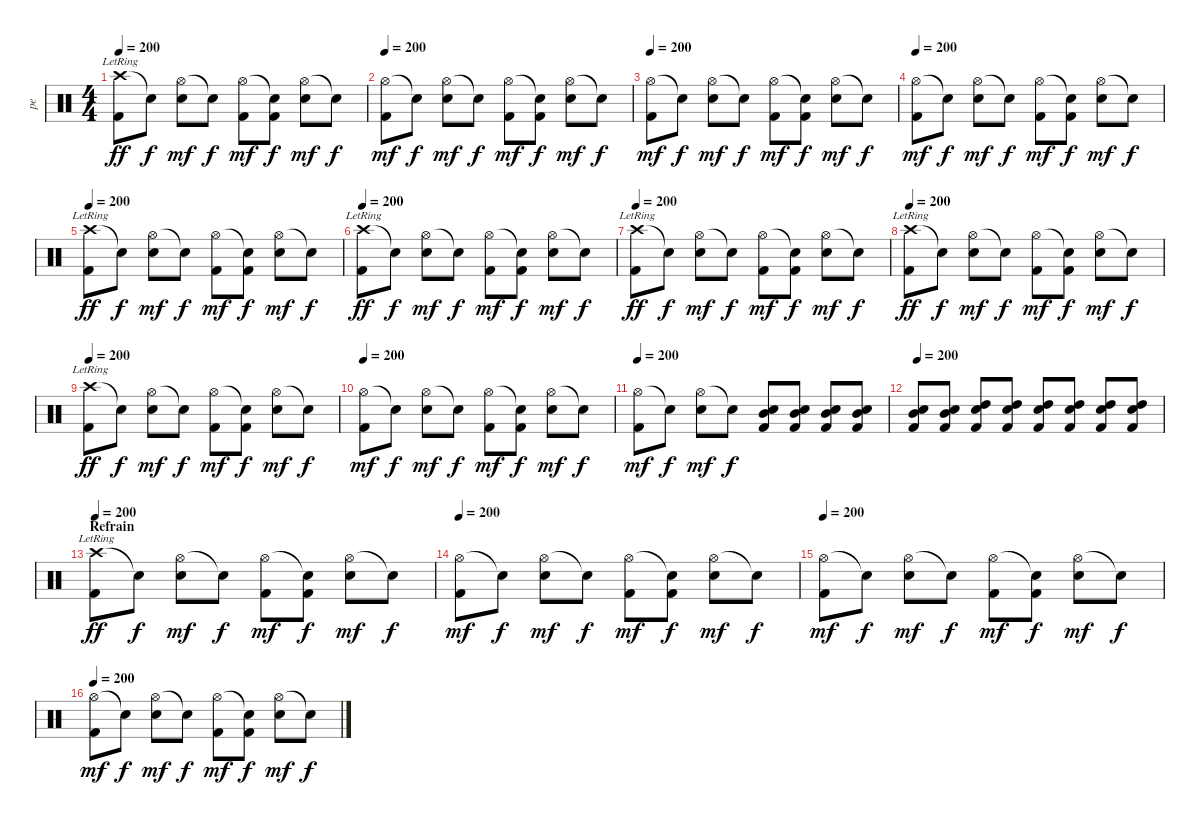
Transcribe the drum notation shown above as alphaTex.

\track ("pe" "pe") {instrument percussion}
\staff {score}
\articulation defaults
\ts (4 4)
\tempo 200
\clef neutral
\ks c
("Crash high (hit)"{lr} "Kick (hit) 2").8{dy ff} "Snare (hit)"{t}.8{dy f} ("Hi-Hat (open)" "Snare (hit) 2").8{dy mf} "Snare (hit)"{t}.8{dy f} ("Hi-Hat (open)" "Kick (hit) 2").8{dy mf} ("Snare (hit)"{t} "Kick (hit) 2").8{dy f} ("Hi-Hat (open)" "Snare (hit) 2").8{dy mf} "Snare (hit)"{t}.8{dy f} |
\tempo 200
("Hi-Hat (open)" "Kick (hit) 2").8{dy mf} "Snare (hit)"{t}.8{dy f} ("Hi-Hat (open)" "Snare (hit) 2").8{dy mf} "Snare (hit)"{t}.8{dy f} ("Hi-Hat (open)" "Kick (hit) 2").8{dy mf} ("Snare (hit)"{t} "Kick (hit) 2").8{dy f} ("Hi-Hat (open)" "Snare (hit) 2").8{dy mf} "Snare (hit)"{t}.8{dy f} |
\tempo 200
("Hi-Hat (open)" "Kick (hit) 2").8{dy mf} "Snare (hit)"{t}.8{dy f} ("Hi-Hat (open)" "Snare (hit) 2").8{dy mf} "Snare (hit)"{t}.8{dy f} ("Hi-Hat (open)" "Kick (hit) 2").8{dy mf} ("Snare (hit)"{t} "Kick (hit) 2").8{dy f} ("Hi-Hat (open)" "Snare (hit) 2").8{dy mf} "Snare (hit)"{t}.8{dy f} |
\tempo 200
("Hi-Hat (open)" "Kick (hit) 2").8{dy mf} "Snare (hit)"{t}.8{dy f} ("Hi-Hat (open)" "Snare (hit) 2").8{dy mf} "Snare (hit)"{t}.8{dy f} ("Hi-Hat (open)" "Kick (hit) 2").8{dy mf} ("Snare (hit)"{t} "Kick (hit) 2").8{dy f} ("Hi-Hat (open)" "Snare (hit) 2").8{dy mf} "Snare (hit)"{t}.8{dy f} |
\tempo 200
("Crash high (hit)"{lr} "Kick (hit) 2").8{dy ff} "Snare (hit)"{t}.8{dy f} ("Hi-Hat (open)" "Snare (hit) 2").8{dy mf} "Snare (hit)"{t}.8{dy f} ("Hi-Hat (open)" "Kick (hit) 2").8{dy mf} ("Snare (hit)"{t} "Kick (hit) 2").8{dy f} ("Hi-Hat (open)" "Snare (hit) 2").8{dy mf} "Snare (hit)"{t}.8{dy f} |
\tempo 200
("Crash high (hit)"{lr} "Kick (hit) 2").8{dy ff} "Snare (hit)"{t}.8{dy f} ("Hi-Hat (open)" "Snare (hit) 2").8{dy mf} "Snare (hit)"{t}.8{dy f} ("Hi-Hat (open)" "Kick (hit) 2").8{dy mf} ("Snare (hit)"{t} "Kick (hit) 2").8{dy f} ("Hi-Hat (open)" "Snare (hit) 2").8{dy mf} "Snare (hit)"{t}.8{dy f} |
\tempo 200
("Crash high (hit)"{lr} "Kick (hit) 2").8{dy ff} "Snare (hit)"{t}.8{dy f} ("Hi-Hat (open)" "Snare (hit) 2").8{dy mf} "Snare (hit)"{t}.8{dy f} ("Hi-Hat (open)" "Kick (hit) 2").8{dy mf} ("Snare (hit)"{t} "Kick (hit) 2").8{dy f} ("Hi-Hat (open)" "Snare (hit) 2").8{dy mf} "Snare (hit)"{t}.8{dy f} |
\tempo 200
("Crash high (hit)"{lr} "Kick (hit) 2").8{dy ff} "Snare (hit)"{t}.8{dy f} ("Hi-Hat (open)" "Snare (hit) 2").8{dy mf} "Snare (hit)"{t}.8{dy f} ("Hi-Hat (open)" "Kick (hit) 2").8{dy mf} ("Snare (hit)"{t} "Kick (hit) 2").8{dy f} ("Hi-Hat (open)" "Snare (hit) 2").8{dy mf} "Snare (hit)"{t}.8{dy f} |
\tempo 200
("Crash high (hit)"{lr} "Kick (hit) 2").8{dy ff} "Snare (hit)"{t}.8{dy f} ("Hi-Hat (open)" "Snare (hit) 2").8{dy mf} "Snare (hit)"{t}.8{dy f} ("Hi-Hat (open)" "Kick (hit) 2").8{dy mf} ("Snare (hit)"{t} "Kick (hit) 2").8{dy f} ("Hi-Hat (open)" "Snare (hit) 2").8{dy mf} "Snare (hit)"{t}.8{dy f} |
\tempo 200
("Hi-Hat (open)" "Kick (hit) 2").8{dy mf} "Snare (hit)"{t}.8{dy f} ("Hi-Hat (open)" "Snare (hit) 2").8{dy mf} "Snare (hit)"{t}.8{dy f} ("Hi-Hat (open)" "Kick (hit) 2").8{dy mf} ("Snare (hit)"{t} "Kick (hit) 2").8{dy f} ("Hi-Hat (open)" "Snare (hit) 2").8{dy mf} "Snare (hit)"{t}.8{dy f} |
\tempo 200
("Hi-Hat (open)" "Kick (hit) 2").8{dy mf} "Snare (hit)"{t}.8{dy f} ("Hi-Hat (open)" "Snare (hit) 2").8{dy mf} "Snare (hit)"{t}.8{dy f} ("Snare (hit) 2" "Mid Tom (hit)" "Kick (hit) 2").8 ("Snare (hit) 2" "Mid Tom (hit)" "Kick (hit) 2").8 ("Snare (hit) 2" "Mid Tom (hit)" "Kick (hit) 2").8 ("Snare (hit) 2" "Mid Tom (hit)" "Kick (hit) 2").8 |
\tempo 200
("Snare (hit) 2" "Mid Tom (hit)" "Kick (hit) 2").8 ("Snare (hit) 2" "Mid Tom (hit)" "Kick (hit) 2").8 ("Snare (hit) 2" "High Tom (hit)" "Kick (hit) 2").8 ("Snare (hit) 2" "High Tom (hit)" "Kick (hit) 2").8 ("Snare (hit) 2" "High Tom (hit)" "Kick (hit) 2").8 ("Snare (hit) 2" "High Tom (hit)" "Kick (hit) 2").8 ("Snare (hit) 2" "High Tom (hit)" "Kick (hit) 2").8 ("Snare (hit) 2" "High Tom (hit)" "Kick (hit) 2").8 |
\section ("" "Refrain")
\tempo 200
("Crash high (hit)"{lr} "Kick (hit) 2").8{dy ff} "Snare (hit)"{t}.8{dy f} ("Hi-Hat (open)" "Snare (hit) 2").8{dy mf} "Snare (hit)"{t}.8{dy f} ("Hi-Hat (open)" "Kick (hit) 2").8{dy mf} ("Snare (hit)"{t} "Kick (hit) 2").8{dy f} ("Hi-Hat (open)" "Snare (hit) 2").8{dy mf} "Snare (hit)"{t}.8{dy f} |
\tempo 200
("Hi-Hat (open)" "Kick (hit) 2").8{dy mf} "Snare (hit)"{t}.8{dy f} ("Hi-Hat (open)" "Snare (hit) 2").8{dy mf} "Snare (hit)"{t}.8{dy f} ("Hi-Hat (open)" "Kick (hit) 2").8{dy mf} ("Snare (hit)"{t} "Kick (hit) 2").8{dy f} ("Hi-Hat (open)" "Snare (hit) 2").8{dy mf} "Snare (hit)"{t}.8{dy f} |
\tempo 200
("Hi-Hat (open)" "Kick (hit) 2").8{dy mf} "Snare (hit)"{t}.8{dy f} ("Hi-Hat (open)" "Snare (hit) 2").8{dy mf} "Snare (hit)"{t}.8{dy f} ("Hi-Hat (open)" "Kick (hit) 2").8{dy mf} ("Snare (hit)"{t} "Kick (hit) 2").8{dy f} ("Hi-Hat (open)" "Snare (hit) 2").8{dy mf} "Snare (hit)"{t}.8{dy f} |
\tempo 200
("Hi-Hat (open)" "Kick (hit) 2").8{dy mf} "Snare (hit)"{t}.8{dy f} ("Hi-Hat (open)" "Snare (hit) 2").8{dy mf} "Snare (hit)"{t}.8{dy f} ("Hi-Hat (open)" "Kick (hit) 2").8{dy mf} ("Snare (hit)"{t} "Kick (hit) 2").8{dy f} ("Hi-Hat (open)" "Snare (hit) 2").8{dy mf} "Snare (hit)"{t}.8{dy f}
